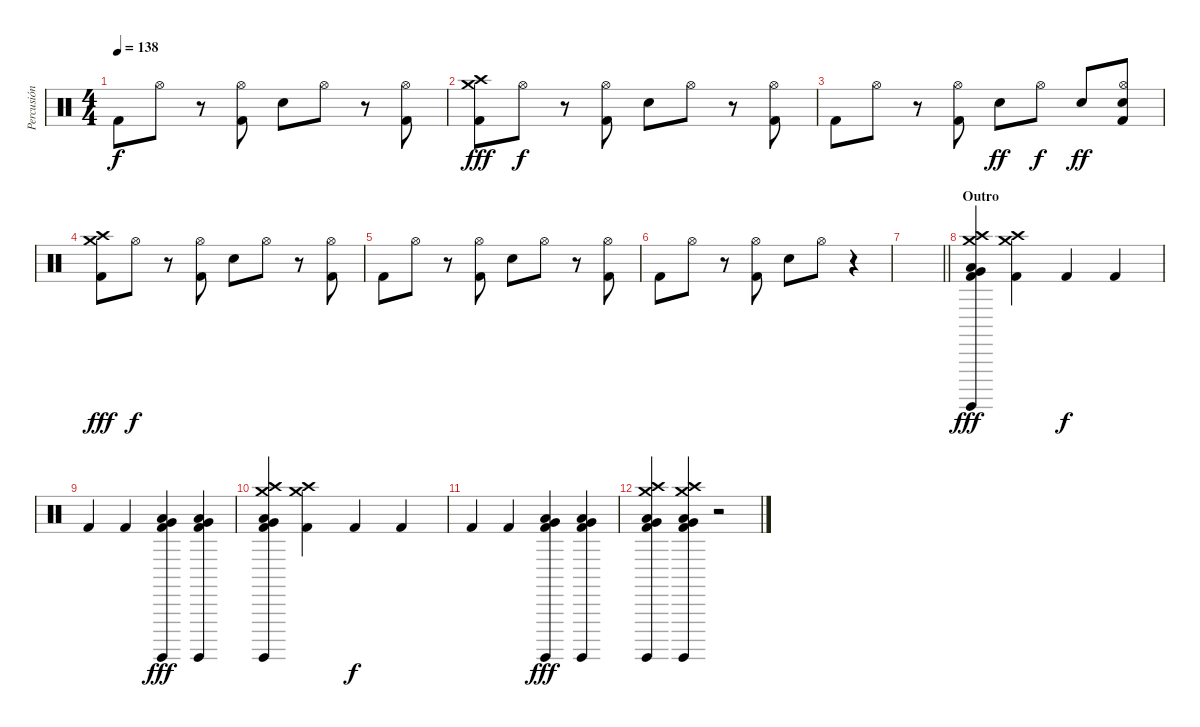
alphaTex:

\track ("Percusión" "Percusión") {instrument percussion}
\staff {score}
\articulation defaults
\ts (4 4)
\tempo 138
\clef neutral
\ks c "Kick (hit) 2".8{dy f} "Hi-Hat (open)".8
r.8 ("Hi-Hat (open)" "Kick (hit) 2").8 "Electric Snare (hit)".8 "Hi-Hat (open)".8 r.8 ("Hi-Hat (open)" "Kick (hit) 2").8 |
("Crash medium (hit)" "Crash high (hit)" "Kick (hit) 2").8{dy fff} "Hi-Hat (open)".8{dy f} r.8 ("Hi-Hat (open)" "Kick (hit) 2").8 "Electric Snare (hit)".8 "Hi-Hat (open)".8 r.8 ("Hi-Hat (open)" "Kick (hit) 2").8 |
"Kick (hit) 2".8 "Hi-Hat (open)".8 r.8 ("Hi-Hat (open)" "Kick (hit) 2").8 "Electric Snare (hit)".8{dy ff} "Hi-Hat (open)".8{dy f} "Electric Snare (hit)".8{dy ff} ("Hi-Hat (open)" "Electric Snare (hit)" "Kick (hit) 2").8 |
("Crash medium (hit)" "Crash high (hit)" "Kick (hit) 2").8{dy fff} "Hi-Hat (open)".8{dy f} r.8 ("Hi-Hat (open)" "Kick (hit) 2").8 "Electric Snare (hit)".8 "Hi-Hat (open)".8 r.8 ("Hi-Hat (open)" "Kick (hit) 2").8 |
"Kick (hit) 2".8 "Hi-Hat (open)".8 r.8 ("Hi-Hat (open)" "Kick (hit) 2").8 "Electric Snare (hit)".8 "Hi-Hat (open)".8 r.8 ("Hi-Hat (open)" "Kick (hit) 2").8 |
"Kick (hit) 2".8 "Hi-Hat (open)".8 r.8 ("Hi-Hat (open)" "Kick (hit) 2").8 "Electric Snare (hit)".8 "Hi-Hat (open)".8 r.4 |
\barLineRight lightlight
|
\section ("" "Outro")
("Crash medium (hit)" "Crash high (hit)" "Low Tom (hit)" "Surdo (hit)" "Very Low Tom (hit)" "Kick (hit) 2").4{dy fff} ("Crash medium (hit)" "Crash high (hit)" "Kick (hit) 2").4 "Kick (hit) 2".4{dy f} "Kick (hit) 2".4 |
"Kick (hit) 2".4 "Kick (hit) 2".4 ("Low Tom (hit)" "Surdo (hit)" "Very Low Tom (hit)" "Kick (hit) 2").4{dy fff} ("Low Tom (hit)" "Surdo (hit)" "Very Low Tom (hit)" "Kick (hit) 2").4 |
("Crash medium (hit)" "Crash high (hit)" "Low Tom (hit)" "Surdo (hit)" "Very Low Tom (hit)" "Kick (hit) 2").4 ("Crash medium (hit)" "Crash high (hit)" "Kick (hit) 2").4 "Kick (hit) 2".4{dy f} "Kick (hit) 2".4 |
"Kick (hit) 2".4 "Kick (hit) 2".4 ("Low Tom (hit)" "Surdo (hit)" "Very Low Tom (hit)" "Kick (hit) 2").4{dy fff} ("Low Tom (hit)" "Surdo (hit)" "Very Low Tom (hit)" "Kick (hit) 2").4 |
("Crash medium (hit)" "Crash high (hit)" "Low Tom (hit)" "Surdo (hit)" "Very Low Tom (hit)" "Kick (hit) 2").4 ("Crash medium (hit)" "Crash high (hit)" "Low Tom (hit)" "Surdo (hit)" "Very Low Tom (hit)" "Kick (hit) 2").4 r.2
